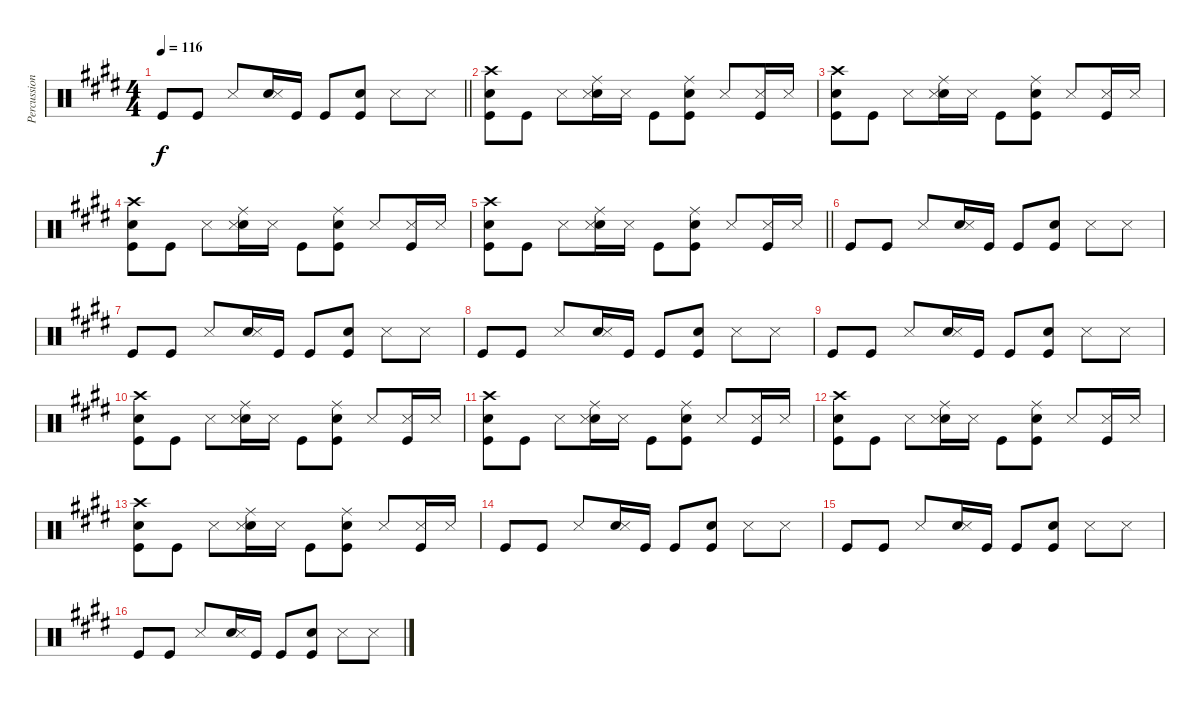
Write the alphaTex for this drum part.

\track ("Percussion" "Percussion") {instrument percussion}
\staff {score}
\articulation defaults
\ts (4 4)
\tempo 116
\clef neutral
\barLineRight lightlight
\ks e "Kick (hit)".8{dy f} "Kick (hit)".8 "Snare (side stick) 3".8
("Electric Snare (hit)" "Snare (side stick) 3").16 "Kick (hit)".16 "Kick (hit)".8 ("Electric Snare (hit)" "Kick (hit)").8 "Snare (side stick) 3".8 "Snare (side stick) 3".8 |
("Crash high (hit)" "Electric Snare (hit)" "Kick (hit)").8 "Kick (hit)".8 "Snare (side stick) 3".8 ("Ride (middle)" "Electric Snare (hit)" "Snare (side stick) 3").16 "Snare (side stick) 3".16 "Kick (hit)".8 ("Ride (middle)" "Electric Snare (hit)" "Kick (hit)").8 "Snare (side stick) 3".8 ("Snare (side stick) 3" "Kick (hit)").16 "Snare (side stick) 3".16 |
("Crash high (hit)" "Electric Snare (hit)" "Kick (hit)").8 "Kick (hit)".8 "Snare (side stick) 3".8 ("Ride (middle)" "Electric Snare (hit)" "Snare (side stick) 3").16 "Snare (side stick) 3".16 "Kick (hit)".8 ("Ride (middle)" "Electric Snare (hit)" "Kick (hit)").8 "Snare (side stick) 3".8 ("Snare (side stick) 3" "Kick (hit)").16 "Snare (side stick) 3".16 |
("Crash high (hit)" "Electric Snare (hit)" "Kick (hit)").8 "Kick (hit)".8 "Snare (side stick) 3".8 ("Ride (middle)" "Electric Snare (hit)" "Snare (side stick) 3").16 "Snare (side stick) 3".16 "Kick (hit)".8 ("Ride (middle)" "Electric Snare (hit)" "Kick (hit)").8 "Snare (side stick) 3".8 ("Snare (side stick) 3" "Kick (hit)").16 "Snare (side stick) 3".16 |
\barLineRight lightlight
("Crash high (hit)" "Electric Snare (hit)" "Kick (hit)").8 "Kick (hit)".8 "Snare (side stick) 3".8 ("Ride (middle)" "Electric Snare (hit)" "Snare (side stick) 3").16 "Snare (side stick) 3".16 "Kick (hit)".8 ("Ride (middle)" "Electric Snare (hit)" "Kick (hit)").8 "Snare (side stick) 3".8 ("Snare (side stick) 3" "Kick (hit)").16 "Snare (side stick) 3".16 |
"Kick (hit)".8 "Kick (hit)".8 "Snare (side stick) 3".8 ("Electric Snare (hit)" "Snare (side stick) 3").16 "Kick (hit)".16 "Kick (hit)".8 ("Electric Snare (hit)" "Kick (hit)").8 "Snare (side stick) 3".8 "Snare (side stick) 3".8 |
"Kick (hit)".8 "Kick (hit)".8 "Snare (side stick) 3".8 ("Electric Snare (hit)" "Snare (side stick) 3").16 "Kick (hit)".16 "Kick (hit)".8 ("Electric Snare (hit)" "Kick (hit)").8 "Snare (side stick) 3".8 "Snare (side stick) 3".8 |
"Kick (hit)".8 "Kick (hit)".8 "Snare (side stick) 3".8 ("Electric Snare (hit)" "Snare (side stick) 3").16 "Kick (hit)".16 "Kick (hit)".8 ("Electric Snare (hit)" "Kick (hit)").8 "Snare (side stick) 3".8 "Snare (side stick) 3".8 |
"Kick (hit)".8 "Kick (hit)".8 "Snare (side stick) 3".8 ("Electric Snare (hit)" "Snare (side stick) 3").16 "Kick (hit)".16 "Kick (hit)".8 ("Electric Snare (hit)" "Kick (hit)").8 "Snare (side stick) 3".8 "Snare (side stick) 3".8 |
("Crash high (hit)" "Electric Snare (hit)" "Kick (hit)").8 "Kick (hit)".8 "Snare (side stick) 3".8 ("Ride (middle)" "Electric Snare (hit)" "Snare (side stick) 3").16 "Snare (side stick) 3".16 "Kick (hit)".8 ("Ride (middle)" "Electric Snare (hit)" "Kick (hit)").8 "Snare (side stick) 3".8 ("Snare (side stick) 3" "Kick (hit)").16 "Snare (side stick) 3".16 |
("Crash high (hit)" "Electric Snare (hit)" "Kick (hit)").8 "Kick (hit)".8 "Snare (side stick) 3".8 ("Ride (middle)" "Electric Snare (hit)" "Snare (side stick) 3").16 "Snare (side stick) 3".16 "Kick (hit)".8 ("Ride (middle)" "Electric Snare (hit)" "Kick (hit)").8 "Snare (side stick) 3".8 ("Snare (side stick) 3" "Kick (hit)").16 "Snare (side stick) 3".16 |
("Crash high (hit)" "Electric Snare (hit)" "Kick (hit)").8 "Kick (hit)".8 "Snare (side stick) 3".8 ("Ride (middle)" "Electric Snare (hit)" "Snare (side stick) 3").16 "Snare (side stick) 3".16 "Kick (hit)".8 ("Ride (middle)" "Electric Snare (hit)" "Kick (hit)").8 "Snare (side stick) 3".8 ("Snare (side stick) 3" "Kick (hit)").16 "Snare (side stick) 3".16 |
("Crash high (hit)" "Electric Snare (hit)" "Kick (hit)").8 "Kick (hit)".8 "Snare (side stick) 3".8 ("Ride (middle)" "Electric Snare (hit)" "Snare (side stick) 3").16 "Snare (side stick) 3".16 "Kick (hit)".8 ("Ride (middle)" "Electric Snare (hit)" "Kick (hit)").8 "Snare (side stick) 3".8 ("Snare (side stick) 3" "Kick (hit)").16 "Snare (side stick) 3".16 |
"Kick (hit)".8 "Kick (hit)".8 "Snare (side stick) 3".8 ("Electric Snare (hit)" "Snare (side stick) 3").16 "Kick (hit)".16 "Kick (hit)".8 ("Electric Snare (hit)" "Kick (hit)").8 "Snare (side stick) 3".8 "Snare (side stick) 3".8 |
"Kick (hit)".8 "Kick (hit)".8 "Snare (side stick) 3".8 ("Electric Snare (hit)" "Snare (side stick) 3").16 "Kick (hit)".16 "Kick (hit)".8 ("Electric Snare (hit)" "Kick (hit)").8 "Snare (side stick) 3".8 "Snare (side stick) 3".8 |
"Kick (hit)".8 "Kick (hit)".8 "Snare (side stick) 3".8 ("Electric Snare (hit)" "Snare (side stick) 3").16 "Kick (hit)".16 "Kick (hit)".8 ("Electric Snare (hit)" "Kick (hit)").8 "Snare (side stick) 3".8 "Snare (side stick) 3".8
